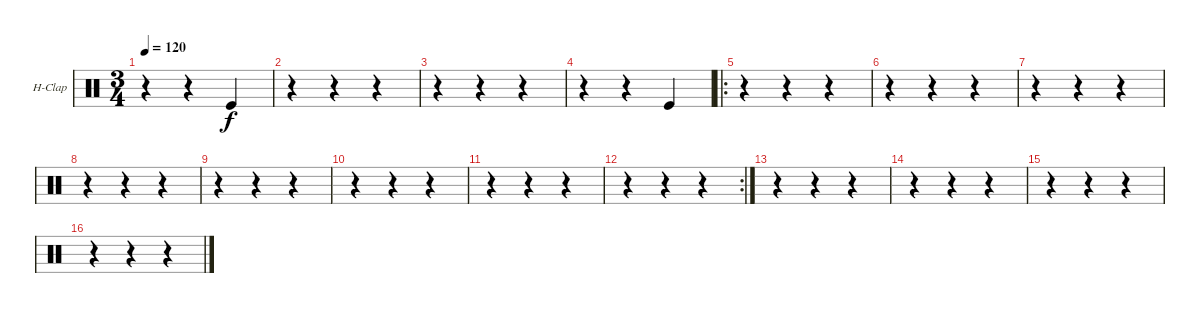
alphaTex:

\bracketExtendMode groupsimilarinstruments
\firstSystemTrackNameOrientation horizontal
\otherSystemsTrackNameOrientation horizontal
\track ("Hand Clap" "H-Clap") {instrument percussion}
\staff {score}
\articulation defaults
\ts (3 4)
\tempo 120
\clef neutral
\ks c
r.4{dy f} r.4 "Kick (hit)".4 |
r.4 r.4 r.4 |
r.4 r.4 r.4 |
r.4 r.4 "Kick (hit)".4 |
\ro
r.4 r.4 r.4 |
r.4 r.4 r.4 |
r.4 r.4 r.4 |
r.4 r.4 r.4 |
r.4 r.4 r.4 |
r.4 r.4 r.4 |
r.4 r.4 r.4 |
\rc 2
r.4 r.4 r.4 |
r.4 r.4 r.4 |
r.4 r.4 r.4 |
r.4 r.4 r.4 |
r.4 r.4 r.4
